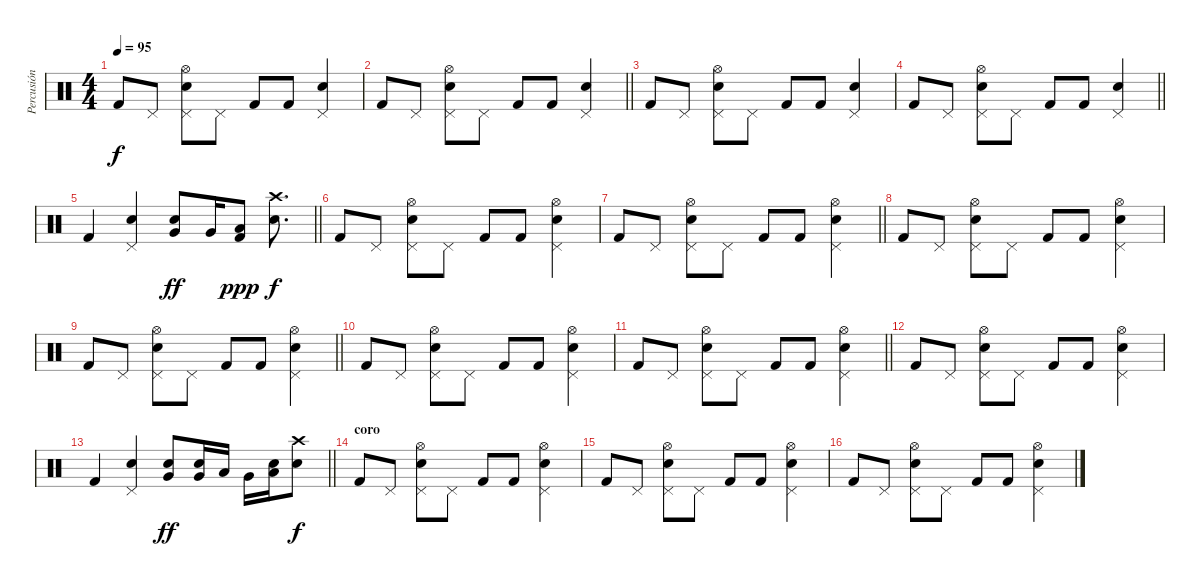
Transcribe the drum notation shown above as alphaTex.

\track ("Percusión" "Percusión") {instrument percussion}
\staff {score}
\articulation defaults
\ts (4 4)
\tempo 95
\clef neutral
\ks c "Kick (hit) 2".8{dy f} "Pedal Hi-Hat (hit)".8
("Snare (hit) 2" "Pedal Hi-Hat (hit)" "Hi-Hat (open)").8 "Pedal Hi-Hat (hit)".8 "Kick (hit) 2".8 "Kick (hit) 2".8 ("Snare (hit) 2" "Pedal Hi-Hat (hit)").4 |
\barLineRight lightlight "Kick (hit) 2".8 "Pedal Hi-Hat (hit)".8
("Snare (hit) 2" "Pedal Hi-Hat (hit)" "Hi-Hat (open)").8 "Pedal Hi-Hat (hit)".8 "Kick (hit) 2".8 "Kick (hit) 2".8 ("Snare (hit) 2" "Pedal Hi-Hat (hit)").4 |
"Kick (hit) 2".8 "Pedal Hi-Hat (hit)".8 ("Snare (hit) 2" "Pedal Hi-Hat (hit)" "Hi-Hat (open)").8 "Pedal Hi-Hat (hit)".8 "Kick (hit) 2".8 "Kick (hit) 2".8 ("Snare (hit) 2" "Pedal Hi-Hat (hit)").4 |
\barLineRight lightlight "Kick (hit) 2".8 "Pedal Hi-Hat (hit)".8
("Snare (hit) 2" "Pedal Hi-Hat (hit)" "Hi-Hat (open)").8 "Pedal Hi-Hat (hit)".8 "Kick (hit) 2".8 "Kick (hit) 2".8 ("Snare (hit) 2" "Pedal Hi-Hat (hit)").4 |
\barLineRight lightlight "Kick (hit) 2".4
("Snare (hit) 2" "Pedal Hi-Hat (hit)").4 ("Very Low Tom (hit)" "Snare (hit) 2").8{dy ff} "Very Low Tom (hit)".16 ("Low Tom (hit)" "Kick (hit) 2").8{dy ppp} ("Crash high (hit)" "Snare (hit) 2").8{d dy f} |
\section ("" "")
"Kick (hit) 2".8 "Pedal Hi-Hat (hit)".8 ("Snare (hit) 2" "Pedal Hi-Hat (hit)" "Hi-Hat (open)").8 "Pedal Hi-Hat (hit)".8 "Kick (hit) 2".8 "Kick (hit) 2".8 ("Snare (hit) 2" "Pedal Hi-Hat (hit)" "Hi-Hat (open)").4 |
\barLineRight lightlight "Kick (hit) 2".8 "Pedal Hi-Hat (hit)".8
("Snare (hit) 2" "Pedal Hi-Hat (hit)" "Hi-Hat (open)").8 "Pedal Hi-Hat (hit)".8 "Kick (hit) 2".8 "Kick (hit) 2".8 ("Snare (hit) 2" "Pedal Hi-Hat (hit)" "Hi-Hat (open)").4 |
"Kick (hit) 2".8 "Pedal Hi-Hat (hit)".8 ("Snare (hit) 2" "Pedal Hi-Hat (hit)" "Hi-Hat (open)").8 "Pedal Hi-Hat (hit)".8 "Kick (hit) 2".8 "Kick (hit) 2".8 ("Snare (hit) 2" "Pedal Hi-Hat (hit)" "Hi-Hat (open)").4 |
\barLineRight lightlight "Kick (hit) 2".8 "Pedal Hi-Hat (hit)".8
("Snare (hit) 2" "Pedal Hi-Hat (hit)" "Hi-Hat (open)").8 "Pedal Hi-Hat (hit)".8 "Kick (hit) 2".8 "Kick (hit) 2".8 ("Snare (hit) 2" "Pedal Hi-Hat (hit)" "Hi-Hat (open)").4 |
"Kick (hit) 2".8 "Pedal Hi-Hat (hit)".8 ("Snare (hit) 2" "Pedal Hi-Hat (hit)" "Hi-Hat (open)").8 "Pedal Hi-Hat (hit)".8 "Kick (hit) 2".8 "Kick (hit) 2".8 ("Snare (hit) 2" "Pedal Hi-Hat (hit)" "Hi-Hat (open)").4 |
\barLineRight lightlight "Kick (hit) 2".8 "Pedal Hi-Hat (hit)".8
("Snare (hit) 2" "Pedal Hi-Hat (hit)" "Hi-Hat (open)").8 "Pedal Hi-Hat (hit)".8 "Kick (hit) 2".8 "Kick (hit) 2".8 ("Snare (hit) 2" "Pedal Hi-Hat (hit)" "Hi-Hat (open)").4 |
"Kick (hit) 2".8 "Pedal Hi-Hat (hit)".8 ("Snare (hit) 2" "Pedal Hi-Hat (hit)" "Hi-Hat (open)").8 "Pedal Hi-Hat (hit)".8 "Kick (hit) 2".8 "Kick (hit) 2".8 ("Snare (hit) 2" "Pedal Hi-Hat (hit)" "Hi-Hat (open)").4 |
\barLineRight lightlight "Kick (hit) 2".4
("Snare (hit) 2" "Pedal Hi-Hat (hit)").4 ("Very Low Tom (hit)" "Snare (hit) 2").8{dy ff} ("Very Low Tom (hit)" "Snare (hit) 2").16 "Low Tom (hit)".16 "Very Low Tom (hit)".16 ("Snare (hit) 2" "Low Floor Tom (hit)").16 ("Crash high (hit)" "Snare (hit) 2").8{dy f} |
\section ("" "coro")
"Kick (hit) 2".8 "Pedal Hi-Hat (hit)".8 ("Snare (hit) 2" "Pedal Hi-Hat (hit)" "Hi-Hat (open)").8 "Pedal Hi-Hat (hit)".8 "Kick (hit) 2".8 "Kick (hit) 2".8 ("Snare (hit) 2" "Pedal Hi-Hat (hit)" "Hi-Hat (open)").4 |
"Kick (hit) 2".8 "Pedal Hi-Hat (hit)".8 ("Snare (hit) 2" "Pedal Hi-Hat (hit)" "Hi-Hat (open)").8 "Pedal Hi-Hat (hit)".8 "Kick (hit) 2".8 "Kick (hit) 2".8 ("Snare (hit) 2" "Pedal Hi-Hat (hit)" "Hi-Hat (open)").4 |
"Kick (hit) 2".8 "Pedal Hi-Hat (hit)".8 ("Snare (hit) 2" "Pedal Hi-Hat (hit)" "Hi-Hat (open)").8 "Pedal Hi-Hat (hit)".8 "Kick (hit) 2".8 "Kick (hit) 2".8 ("Snare (hit) 2" "Pedal Hi-Hat (hit)" "Hi-Hat (open)").4
